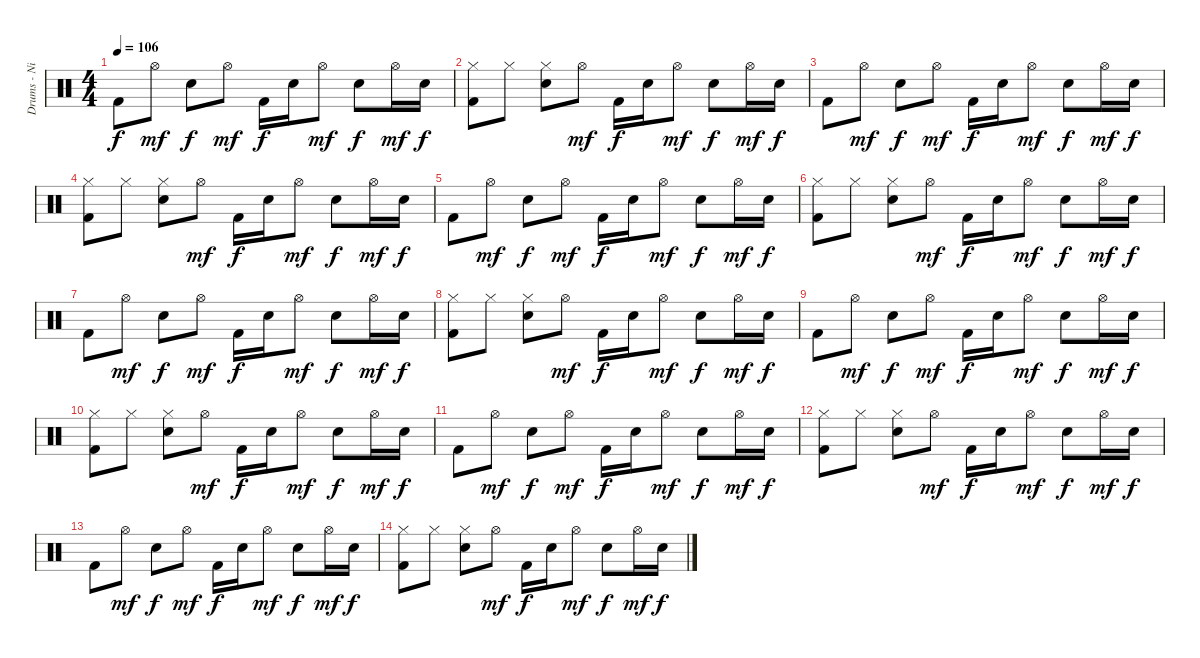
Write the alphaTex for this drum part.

\track ("Drums - Nick Van Gelder" "Drums - Ni") {instrument percussion}
\staff {score}
\articulation defaults
\ts (4 4)
\tempo 106
\clef neutral
\ks c "Kick (hit) 2".8{dy f} "Hi-Hat (open)".8{dy mf} "Electric Snare (hit)".8{dy f} "Hi-Hat (open)".8{dy mf} "Kick (hit) 2".16{dy f} "Electric Snare (hit)".16 "Hi-Hat (open)".8{dy mf} "Electric Snare (hit)".8{dy f} "Hi-Hat (open)".16{dy mf} "Electric Snare (hit)".16{dy f}
|
("Hi-Hat (closed)" "Kick (hit) 2").8 "Hi-Hat (closed)".8 ("Hi-Hat (closed)" "Electric Snare (hit)").8 "Hi-Hat (open)".8{dy mf} "Kick (hit) 2".16{dy f} "Electric Snare (hit)".16 "Hi-Hat (open)".8{dy mf} "Electric Snare (hit)".8{dy f} "Hi-Hat (open)".16{dy mf} "Electric Snare (hit)".16{dy f} |
"Kick (hit) 2".8 "Hi-Hat (open)".8{dy mf} "Electric Snare (hit)".8{dy f} "Hi-Hat (open)".8{dy mf} "Kick (hit) 2".16{dy f} "Electric Snare (hit)".16 "Hi-Hat (open)".8{dy mf} "Electric Snare (hit)".8{dy f} "Hi-Hat (open)".16{dy mf} "Electric Snare (hit)".16{dy f} |
("Hi-Hat (closed)" "Kick (hit) 2").8 "Hi-Hat (closed)".8 ("Hi-Hat (closed)" "Electric Snare (hit)").8 "Hi-Hat (open)".8{dy mf} "Kick (hit) 2".16{dy f} "Electric Snare (hit)".16 "Hi-Hat (open)".8{dy mf} "Electric Snare (hit)".8{dy f} "Hi-Hat (open)".16{dy mf} "Electric Snare (hit)".16{dy f} |
"Kick (hit) 2".8 "Hi-Hat (open)".8{dy mf} "Electric Snare (hit)".8{dy f} "Hi-Hat (open)".8{dy mf} "Kick (hit) 2".16{dy f} "Electric Snare (hit)".16 "Hi-Hat (open)".8{dy mf} "Electric Snare (hit)".8{dy f} "Hi-Hat (open)".16{dy mf} "Electric Snare (hit)".16{dy f} |
("Hi-Hat (closed)" "Kick (hit) 2").8 "Hi-Hat (closed)".8 ("Hi-Hat (closed)" "Electric Snare (hit)").8 "Hi-Hat (open)".8{dy mf} "Kick (hit) 2".16{dy f} "Electric Snare (hit)".16 "Hi-Hat (open)".8{dy mf} "Electric Snare (hit)".8{dy f} "Hi-Hat (open)".16{dy mf} "Electric Snare (hit)".16{dy f} |
"Kick (hit) 2".8 "Hi-Hat (open)".8{dy mf} "Electric Snare (hit)".8{dy f} "Hi-Hat (open)".8{dy mf} "Kick (hit) 2".16{dy f} "Electric Snare (hit)".16 "Hi-Hat (open)".8{dy mf} "Electric Snare (hit)".8{dy f} "Hi-Hat (open)".16{dy mf} "Electric Snare (hit)".16{dy f} |
("Hi-Hat (closed)" "Kick (hit) 2").8 "Hi-Hat (closed)".8 ("Hi-Hat (closed)" "Electric Snare (hit)").8 "Hi-Hat (open)".8{dy mf} "Kick (hit) 2".16{dy f} "Electric Snare (hit)".16 "Hi-Hat (open)".8{dy mf} "Electric Snare (hit)".8{dy f} "Hi-Hat (open)".16{dy mf} "Electric Snare (hit)".16{dy f} |
"Kick (hit) 2".8{volume 11} "Hi-Hat (open)".8{dy mf} "Electric Snare (hit)".8{dy f} "Hi-Hat (open)".8{dy mf} "Kick (hit) 2".16{dy f} "Electric Snare (hit)".16 "Hi-Hat (open)".8{dy mf} "Electric Snare (hit)".8{dy f} "Hi-Hat (open)".16{dy mf} "Electric Snare (hit)".16{dy f} |
("Hi-Hat (closed)" "Kick (hit) 2").8 "Hi-Hat (closed)".8 ("Hi-Hat (closed)" "Electric Snare (hit)").8 "Hi-Hat (open)".8{dy mf} "Kick (hit) 2".16{dy f} "Electric Snare (hit)".16 "Hi-Hat (open)".8{dy mf} "Electric Snare (hit)".8{dy f} "Hi-Hat (open)".16{dy mf} "Electric Snare (hit)".16{dy f} |
"Kick (hit) 2".8{volume 7} "Hi-Hat (open)".8{dy mf} "Electric Snare (hit)".8{dy f} "Hi-Hat (open)".8{dy mf} "Kick (hit) 2".16{dy f} "Electric Snare (hit)".16 "Hi-Hat (open)".8{dy mf} "Electric Snare (hit)".8{dy f} "Hi-Hat (open)".16{dy mf} "Electric Snare (hit)".16{dy f} |
("Hi-Hat (closed)" "Kick (hit) 2").8 "Hi-Hat (closed)".8 ("Hi-Hat (closed)" "Electric Snare (hit)").8 "Hi-Hat (open)".8{dy mf} "Kick (hit) 2".16{dy f} "Electric Snare (hit)".16 "Hi-Hat (open)".8{dy mf} "Electric Snare (hit)".8{dy f} "Hi-Hat (open)".16{dy mf} "Electric Snare (hit)".16{dy f} |
"Kick (hit) 2".8{volume 3} "Hi-Hat (open)".8{dy mf} "Electric Snare (hit)".8{dy f} "Hi-Hat (open)".8{dy mf} "Kick (hit) 2".16{dy f} "Electric Snare (hit)".16 "Hi-Hat (open)".8{dy mf} "Electric Snare (hit)".8{dy f} "Hi-Hat (open)".16{dy mf} "Electric Snare (hit)".16{dy f} |
("Hi-Hat (closed)" "Kick (hit) 2").8 "Hi-Hat (closed)".8 ("Hi-Hat (closed)" "Electric Snare (hit)").8 "Hi-Hat (open)".8{dy mf} "Kick (hit) 2".16{dy f} "Electric Snare (hit)".16 "Hi-Hat (open)".8{dy mf} "Electric Snare (hit)".8{dy f} "Hi-Hat (open)".16{dy mf} "Electric Snare (hit)".16{dy f}
